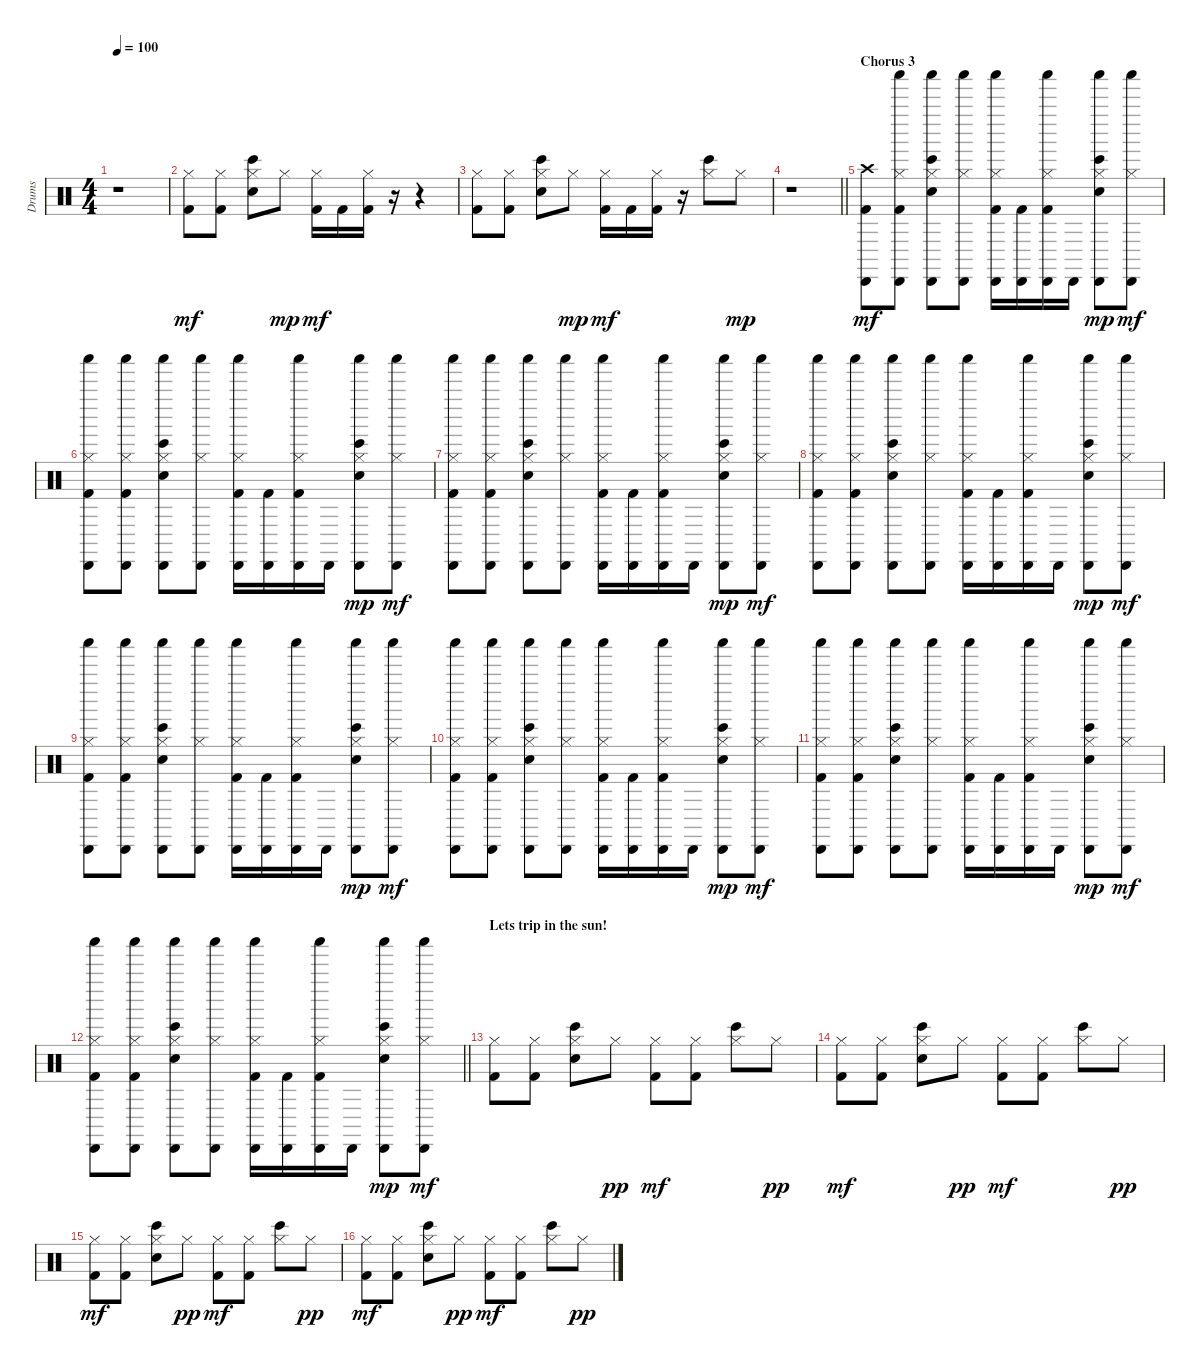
\track ("Drums" "Drums") {instrument percussion}
\staff {score}
\articulation defaults
\ts (4 4)
\tempo 100
\clef neutral
\ks c
r.1{dy mp} |
("Hi-Hat (closed)" "Kick (hit) 2").8{dy mf} ("Hi-Hat (closed)" "Kick (hit) 2").8 ("Hi-Hat (closed)" "Bongo High (hit)" "Snare (hit) 2").8 "Hi-Hat (closed)".8{dy mp} ("Hi-Hat (closed)" "Kick (hit) 2").16{dy mf} "Kick (hit) 2".16 ("Hi-Hat (closed)" "Kick (hit) 2").16 r.16 r.4 |
("Hi-Hat (closed)" "Kick (hit) 2").8 ("Hi-Hat (closed)" "Kick (hit) 2").8 ("Hi-Hat (closed)" "Bongo High (hit)" "Snare (hit) 2").8 "Hi-Hat (closed)".8{dy mp} ("Hi-Hat (closed)" "Kick (hit) 2").16{dy mf} "Kick (hit) 2".16 ("Hi-Hat (closed)" "Kick (hit) 2").16 r.16 ("Hi-Hat (closed)" "Bongo High (hit)").8 "Hi-Hat (closed)".8{dy mp} |
\barLineRight lightlight
r.1 |
\section ("" "Chorus 3")
("Crash high (hit)" "Cabasa (hit)" "Kick (hit) 2").8{dy mf} ("Shaker (hit)" "Hi-Hat (closed)" "Cabasa (hit)" "Kick (hit) 2").8 ("Shaker (hit)" "Hi-Hat (closed)" "Cabasa (hit)" "Bongo High (hit)" "Snare (hit) 2").8 ("Shaker (hit)" "Hi-Hat (closed)" "Cabasa (hit)").8 ("Shaker (hit)" "Hi-Hat (closed)" "Cabasa (hit)" "Kick (hit) 2").16 ("Cabasa (hit)" "Kick (hit) 2").16 ("Shaker (hit)" "Hi-Hat (closed)" "Cabasa (hit)" "Kick (hit) 2").16 "Cabasa (hit)".16 ("Shaker (hit)" "Hi-Hat (closed)" "Cabasa (hit)" "Bongo High (hit)" "Snare (hit) 2").8{dy mp} ("Shaker (hit)" "Hi-Hat (closed)" "Cabasa (hit)").8{dy mf} |
("Shaker (hit)" "Hi-Hat (closed)" "Cabasa (hit)" "Kick (hit) 2").8 ("Shaker (hit)" "Hi-Hat (closed)" "Cabasa (hit)" "Kick (hit) 2").8 ("Shaker (hit)" "Hi-Hat (closed)" "Cabasa (hit)" "Bongo High (hit)" "Snare (hit) 2").8 ("Shaker (hit)" "Hi-Hat (closed)" "Cabasa (hit)").8 ("Shaker (hit)" "Hi-Hat (closed)" "Cabasa (hit)" "Kick (hit) 2").16 ("Cabasa (hit)" "Kick (hit) 2").16 ("Shaker (hit)" "Hi-Hat (closed)" "Cabasa (hit)" "Kick (hit) 2").16 "Cabasa (hit)".16 ("Shaker (hit)" "Hi-Hat (closed)" "Cabasa (hit)" "Bongo High (hit)" "Snare (hit) 2").8{dy mp} ("Shaker (hit)" "Hi-Hat (closed)" "Cabasa (hit)").8{dy mf} |
("Shaker (hit)" "Hi-Hat (closed)" "Cabasa (hit)" "Kick (hit) 2").8 ("Shaker (hit)" "Hi-Hat (closed)" "Cabasa (hit)" "Kick (hit) 2").8 ("Shaker (hit)" "Hi-Hat (closed)" "Cabasa (hit)" "Bongo High (hit)" "Snare (hit) 2").8 ("Shaker (hit)" "Hi-Hat (closed)" "Cabasa (hit)").8 ("Shaker (hit)" "Hi-Hat (closed)" "Cabasa (hit)" "Kick (hit) 2").16 ("Cabasa (hit)" "Kick (hit) 2").16 ("Shaker (hit)" "Hi-Hat (closed)" "Cabasa (hit)" "Kick (hit) 2").16 "Cabasa (hit)".16 ("Shaker (hit)" "Hi-Hat (closed)" "Cabasa (hit)" "Bongo High (hit)" "Snare (hit) 2").8{dy mp} ("Shaker (hit)" "Hi-Hat (closed)" "Cabasa (hit)").8{dy mf} |
("Shaker (hit)" "Hi-Hat (closed)" "Cabasa (hit)" "Kick (hit) 2").8 ("Shaker (hit)" "Hi-Hat (closed)" "Cabasa (hit)" "Kick (hit) 2").8 ("Shaker (hit)" "Hi-Hat (closed)" "Cabasa (hit)" "Bongo High (hit)" "Snare (hit) 2").8 ("Shaker (hit)" "Hi-Hat (closed)" "Cabasa (hit)").8 ("Shaker (hit)" "Hi-Hat (closed)" "Cabasa (hit)" "Kick (hit) 2").16 ("Cabasa (hit)" "Kick (hit) 2").16 ("Shaker (hit)" "Hi-Hat (closed)" "Cabasa (hit)" "Kick (hit) 2").16 "Cabasa (hit)".16 ("Shaker (hit)" "Hi-Hat (closed)" "Cabasa (hit)" "Bongo High (hit)" "Snare (hit) 2").8{dy mp} ("Shaker (hit)" "Hi-Hat (closed)" "Cabasa (hit)").8{dy mf} |
("Shaker (hit)" "Hi-Hat (closed)" "Cabasa (hit)" "Kick (hit) 2").8 ("Shaker (hit)" "Hi-Hat (closed)" "Cabasa (hit)" "Kick (hit) 2").8 ("Shaker (hit)" "Hi-Hat (closed)" "Cabasa (hit)" "Bongo High (hit)" "Snare (hit) 2").8 ("Shaker (hit)" "Hi-Hat (closed)" "Cabasa (hit)").8 ("Shaker (hit)" "Hi-Hat (closed)" "Cabasa (hit)" "Kick (hit) 2").16 ("Cabasa (hit)" "Kick (hit) 2").16 ("Shaker (hit)" "Hi-Hat (closed)" "Cabasa (hit)" "Kick (hit) 2").16 "Cabasa (hit)".16 ("Shaker (hit)" "Hi-Hat (closed)" "Cabasa (hit)" "Bongo High (hit)" "Snare (hit) 2").8{dy mp} ("Shaker (hit)" "Hi-Hat (closed)" "Cabasa (hit)").8{dy mf} |
("Shaker (hit)" "Hi-Hat (closed)" "Cabasa (hit)" "Kick (hit) 2").8 ("Shaker (hit)" "Hi-Hat (closed)" "Cabasa (hit)" "Kick (hit) 2").8 ("Shaker (hit)" "Hi-Hat (closed)" "Cabasa (hit)" "Bongo High (hit)" "Snare (hit) 2").8 ("Shaker (hit)" "Hi-Hat (closed)" "Cabasa (hit)").8 ("Shaker (hit)" "Hi-Hat (closed)" "Cabasa (hit)" "Kick (hit) 2").16 ("Cabasa (hit)" "Kick (hit) 2").16 ("Shaker (hit)" "Hi-Hat (closed)" "Cabasa (hit)" "Kick (hit) 2").16 "Cabasa (hit)".16 ("Shaker (hit)" "Hi-Hat (closed)" "Cabasa (hit)" "Bongo High (hit)" "Snare (hit) 2").8{dy mp} ("Shaker (hit)" "Hi-Hat (closed)" "Cabasa (hit)").8{dy mf} |
("Shaker (hit)" "Hi-Hat (closed)" "Cabasa (hit)" "Kick (hit) 2").8 ("Shaker (hit)" "Hi-Hat (closed)" "Cabasa (hit)" "Kick (hit) 2").8 ("Shaker (hit)" "Hi-Hat (closed)" "Cabasa (hit)" "Bongo High (hit)" "Snare (hit) 2").8 ("Shaker (hit)" "Hi-Hat (closed)" "Cabasa (hit)").8 ("Shaker (hit)" "Hi-Hat (closed)" "Cabasa (hit)" "Kick (hit) 2").16 ("Cabasa (hit)" "Kick (hit) 2").16 ("Shaker (hit)" "Hi-Hat (closed)" "Cabasa (hit)" "Kick (hit) 2").16 "Cabasa (hit)".16 ("Shaker (hit)" "Hi-Hat (closed)" "Cabasa (hit)" "Bongo High (hit)" "Snare (hit) 2").8{dy mp} ("Shaker (hit)" "Hi-Hat (closed)" "Cabasa (hit)").8{dy mf} |
\barLineRight lightlight
("Shaker (hit)" "Hi-Hat (closed)" "Cabasa (hit)" "Kick (hit) 2").8 ("Shaker (hit)" "Hi-Hat (closed)" "Cabasa (hit)" "Kick (hit) 2").8 ("Shaker (hit)" "Hi-Hat (closed)" "Cabasa (hit)" "Bongo High (hit)" "Snare (hit) 2").8 ("Shaker (hit)" "Hi-Hat (closed)" "Cabasa (hit)").8 ("Shaker (hit)" "Hi-Hat (closed)" "Cabasa (hit)" "Kick (hit) 2").16 ("Cabasa (hit)" "Kick (hit) 2").16 ("Shaker (hit)" "Hi-Hat (closed)" "Cabasa (hit)" "Kick (hit) 2").16 "Cabasa (hit)".16 ("Shaker (hit)" "Hi-Hat (closed)" "Cabasa (hit)" "Bongo High (hit)" "Snare (hit) 2").8{dy mp} ("Shaker (hit)" "Hi-Hat (closed)" "Cabasa (hit)").8{dy mf} |
\section ("" "Lets trip in the sun!")
("Hi-Hat (closed)" "Kick (hit) 2").8 ("Hi-Hat (closed)" "Kick (hit) 2").8 ("Hi-Hat (closed)" "Bongo High (hit)" "Snare (hit) 2").8 "Hi-Hat (closed)".8{dy pp} ("Hi-Hat (closed)" "Kick (hit) 2").8{dy mf} ("Hi-Hat (closed)" "Kick (hit) 2").8 ("Hi-Hat (closed)" "Bongo High (hit)").8 "Hi-Hat (closed)".8{dy pp} |
("Hi-Hat (closed)" "Kick (hit) 2").8{dy mf} ("Hi-Hat (closed)" "Kick (hit) 2").8 ("Hi-Hat (closed)" "Bongo High (hit)" "Snare (hit) 2").8 "Hi-Hat (closed)".8{dy pp} ("Hi-Hat (closed)" "Kick (hit) 2").8{dy mf} ("Hi-Hat (closed)" "Kick (hit) 2").8 ("Hi-Hat (closed)" "Bongo High (hit)").8 "Hi-Hat (closed)".8{dy pp} |
("Hi-Hat (closed)" "Kick (hit) 2").8{dy mf} ("Hi-Hat (closed)" "Kick (hit) 2").8 ("Hi-Hat (closed)" "Bongo High (hit)" "Snare (hit) 2").8 "Hi-Hat (closed)".8{dy pp} ("Hi-Hat (closed)" "Kick (hit) 2").8{dy mf} ("Hi-Hat (closed)" "Kick (hit) 2").8 ("Hi-Hat (closed)" "Bongo High (hit)").8 "Hi-Hat (closed)".8{dy pp} |
("Hi-Hat (closed)" "Kick (hit) 2").8{dy mf} ("Hi-Hat (closed)" "Kick (hit) 2").8 ("Hi-Hat (closed)" "Bongo High (hit)" "Snare (hit) 2").8 "Hi-Hat (closed)".8{dy pp} ("Hi-Hat (closed)" "Kick (hit) 2").8{dy mf} ("Hi-Hat (closed)" "Kick (hit) 2").8 ("Hi-Hat (closed)" "Bongo High (hit)").8 "Hi-Hat (closed)".8{dy pp}
